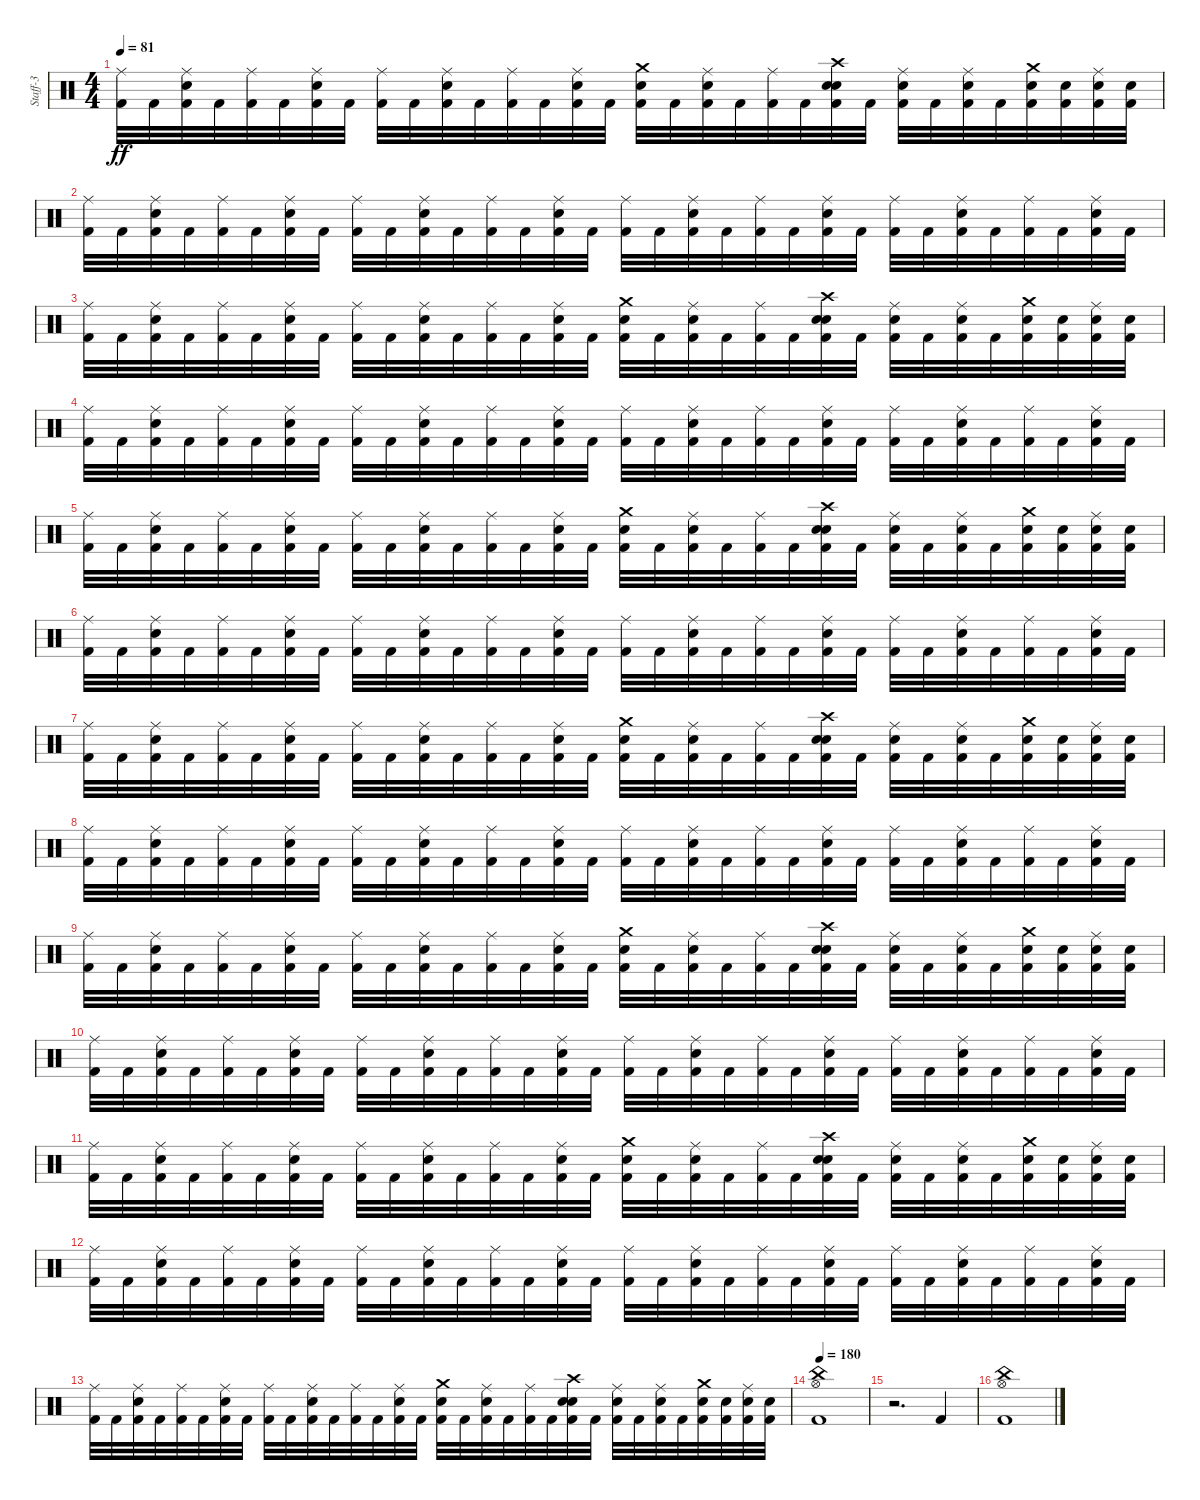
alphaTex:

\track ("Staff-3" "Staff-3") {instrument percussion}
\staff {score}
\articulation defaults
\ts (4 4)
\tempo 81
\clef neutral
\ks c
("Kick (hit) 2" "Ride (middle)").32{dy ff} "Kick (hit) 2".32 ("Kick (hit) 2" "Electric Snare (hit)" "Ride (middle)").32 "Kick (hit) 2".32 ("Kick (hit) 2" "Ride (middle)").32 "Kick (hit) 2".32 ("Kick (hit) 2" "Electric Snare (hit)" "Ride (middle)").32 "Kick (hit) 2".32 ("Kick (hit) 2" "Ride (middle)").32 "Kick (hit) 2".32 ("Kick (hit) 2" "Electric Snare (hit)" "Ride (middle)").32 "Kick (hit) 2".32 ("Kick (hit) 2" "Ride (middle)").32 "Kick (hit) 2".32 ("Kick (hit) 2" "Electric Snare (hit)" "Ride (middle)").32 "Kick (hit) 2".32 ("Kick (hit) 2" "Snare (hit) 2" "Crash medium (hit)").32 "Kick (hit) 2".32 ("Kick (hit) 2" "Snare (hit) 2" "Ride (middle)").32 "Kick (hit) 2".32 ("Kick (hit) 2" "Ride (middle)").32 "Kick (hit) 2".32 ("Kick (hit) 2" "Snare (hit) 2" "Electric Snare (hit)" "Crash high (hit)").32 "Kick (hit) 2".32 ("Kick (hit) 2" "Snare (hit) 2" "Ride (middle)").32 "Kick (hit) 2".32 ("Kick (hit) 2" "Snare (hit) 2" "Ride (middle)").32 "Kick (hit) 2".32 ("Kick (hit) 2" "Snare (hit) 2" "Crash medium (hit)").32 ("Kick (hit) 2" "Snare (hit) 2").32 ("Kick (hit) 2" "Snare (hit) 2" "Ride (middle)").32 ("Kick (hit) 2" "Snare (hit) 2").32 |
("Kick (hit) 2" "Ride (middle)").32 "Kick (hit) 2".32 ("Kick (hit) 2" "Electric Snare (hit)" "Ride (middle)").32 "Kick (hit) 2".32 ("Kick (hit) 2" "Ride (middle)").32 "Kick (hit) 2".32 ("Kick (hit) 2" "Electric Snare (hit)" "Ride (middle)").32 "Kick (hit) 2".32 ("Kick (hit) 2" "Ride (middle)").32 "Kick (hit) 2".32 ("Kick (hit) 2" "Electric Snare (hit)" "Ride (middle)").32 "Kick (hit) 2".32 ("Kick (hit) 2" "Ride (middle)").32 "Kick (hit) 2".32 ("Kick (hit) 2" "Electric Snare (hit)" "Ride (middle)").32 "Kick (hit) 2".32 ("Kick (hit) 2" "Ride (middle)").32 "Kick (hit) 2".32 ("Kick (hit) 2" "Electric Snare (hit)" "Ride (middle)").32 "Kick (hit) 2".32 ("Kick (hit) 2" "Ride (middle)").32 "Kick (hit) 2".32 ("Kick (hit) 2" "Electric Snare (hit)" "Ride (middle)").32 "Kick (hit) 2".32 ("Kick (hit) 2" "Ride (middle)").32 "Kick (hit) 2".32 ("Kick (hit) 2" "Electric Snare (hit)" "Ride (middle)").32 "Kick (hit) 2".32 ("Kick (hit) 2" "Ride (middle)").32 "Kick (hit) 2".32 ("Kick (hit) 2" "Electric Snare (hit)" "Ride (middle)").32 "Kick (hit) 2".32 |
("Kick (hit) 2" "Ride (middle)").32 "Kick (hit) 2".32 ("Kick (hit) 2" "Electric Snare (hit)" "Ride (middle)").32 "Kick (hit) 2".32 ("Kick (hit) 2" "Ride (middle)").32 "Kick (hit) 2".32 ("Kick (hit) 2" "Electric Snare (hit)" "Ride (middle)").32 "Kick (hit) 2".32 ("Kick (hit) 2" "Ride (middle)").32 "Kick (hit) 2".32 ("Kick (hit) 2" "Electric Snare (hit)" "Ride (middle)").32 "Kick (hit) 2".32 ("Kick (hit) 2" "Ride (middle)").32 "Kick (hit) 2".32 ("Kick (hit) 2" "Electric Snare (hit)" "Ride (middle)").32 "Kick (hit) 2".32 ("Kick (hit) 2" "Snare (hit) 2" "Crash medium (hit)").32 "Kick (hit) 2".32 ("Kick (hit) 2" "Snare (hit) 2" "Ride (middle)").32 "Kick (hit) 2".32 ("Kick (hit) 2" "Ride (middle)").32 "Kick (hit) 2".32 ("Kick (hit) 2" "Snare (hit) 2" "Electric Snare (hit)" "Crash high (hit)").32 "Kick (hit) 2".32 ("Kick (hit) 2" "Snare (hit) 2" "Ride (middle)").32 "Kick (hit) 2".32 ("Kick (hit) 2" "Snare (hit) 2" "Ride (middle)").32 "Kick (hit) 2".32 ("Kick (hit) 2" "Snare (hit) 2" "Crash medium (hit)").32 ("Kick (hit) 2" "Snare (hit) 2").32 ("Kick (hit) 2" "Snare (hit) 2" "Ride (middle)").32 ("Kick (hit) 2" "Snare (hit) 2").32 |
("Kick (hit) 2" "Ride (middle)").32 "Kick (hit) 2".32 ("Kick (hit) 2" "Electric Snare (hit)" "Ride (middle)").32 "Kick (hit) 2".32 ("Kick (hit) 2" "Ride (middle)").32 "Kick (hit) 2".32 ("Kick (hit) 2" "Electric Snare (hit)" "Ride (middle)").32 "Kick (hit) 2".32 ("Kick (hit) 2" "Ride (middle)").32 "Kick (hit) 2".32 ("Kick (hit) 2" "Electric Snare (hit)" "Ride (middle)").32 "Kick (hit) 2".32 ("Kick (hit) 2" "Ride (middle)").32 "Kick (hit) 2".32 ("Kick (hit) 2" "Electric Snare (hit)" "Ride (middle)").32 "Kick (hit) 2".32 ("Kick (hit) 2" "Ride (middle)").32 "Kick (hit) 2".32 ("Kick (hit) 2" "Electric Snare (hit)" "Ride (middle)").32 "Kick (hit) 2".32 ("Kick (hit) 2" "Ride (middle)").32 "Kick (hit) 2".32 ("Kick (hit) 2" "Electric Snare (hit)" "Ride (middle)").32 "Kick (hit) 2".32 ("Kick (hit) 2" "Ride (middle)").32 "Kick (hit) 2".32 ("Kick (hit) 2" "Electric Snare (hit)" "Ride (middle)").32 "Kick (hit) 2".32 ("Kick (hit) 2" "Ride (middle)").32 "Kick (hit) 2".32 ("Kick (hit) 2" "Electric Snare (hit)" "Ride (middle)").32 "Kick (hit) 2".32 |
("Kick (hit) 2" "Ride (middle)").32 "Kick (hit) 2".32 ("Kick (hit) 2" "Electric Snare (hit)" "Ride (middle)").32 "Kick (hit) 2".32 ("Kick (hit) 2" "Ride (middle)").32 "Kick (hit) 2".32 ("Kick (hit) 2" "Electric Snare (hit)" "Ride (middle)").32 "Kick (hit) 2".32 ("Kick (hit) 2" "Ride (middle)").32 "Kick (hit) 2".32 ("Kick (hit) 2" "Electric Snare (hit)" "Ride (middle)").32 "Kick (hit) 2".32 ("Kick (hit) 2" "Ride (middle)").32 "Kick (hit) 2".32 ("Kick (hit) 2" "Electric Snare (hit)" "Ride (middle)").32 "Kick (hit) 2".32 ("Kick (hit) 2" "Snare (hit) 2" "Crash medium (hit)").32 "Kick (hit) 2".32 ("Kick (hit) 2" "Snare (hit) 2" "Ride (middle)").32 "Kick (hit) 2".32 ("Kick (hit) 2" "Ride (middle)").32 "Kick (hit) 2".32 ("Kick (hit) 2" "Snare (hit) 2" "Electric Snare (hit)" "Crash high (hit)").32 "Kick (hit) 2".32 ("Kick (hit) 2" "Snare (hit) 2" "Ride (middle)").32 "Kick (hit) 2".32 ("Kick (hit) 2" "Snare (hit) 2" "Ride (middle)").32 "Kick (hit) 2".32 ("Kick (hit) 2" "Snare (hit) 2" "Crash medium (hit)").32 ("Kick (hit) 2" "Snare (hit) 2").32 ("Kick (hit) 2" "Snare (hit) 2" "Ride (middle)").32 ("Kick (hit) 2" "Snare (hit) 2").32 |
("Kick (hit) 2" "Ride (middle)").32 "Kick (hit) 2".32 ("Kick (hit) 2" "Electric Snare (hit)" "Ride (middle)").32 "Kick (hit) 2".32 ("Kick (hit) 2" "Ride (middle)").32 "Kick (hit) 2".32 ("Kick (hit) 2" "Electric Snare (hit)" "Ride (middle)").32 "Kick (hit) 2".32 ("Kick (hit) 2" "Ride (middle)").32 "Kick (hit) 2".32 ("Kick (hit) 2" "Electric Snare (hit)" "Ride (middle)").32 "Kick (hit) 2".32 ("Kick (hit) 2" "Ride (middle)").32 "Kick (hit) 2".32 ("Kick (hit) 2" "Electric Snare (hit)" "Ride (middle)").32 "Kick (hit) 2".32 ("Kick (hit) 2" "Ride (middle)").32 "Kick (hit) 2".32 ("Kick (hit) 2" "Electric Snare (hit)" "Ride (middle)").32 "Kick (hit) 2".32 ("Kick (hit) 2" "Ride (middle)").32 "Kick (hit) 2".32 ("Kick (hit) 2" "Electric Snare (hit)" "Ride (middle)").32 "Kick (hit) 2".32 ("Kick (hit) 2" "Ride (middle)").32 "Kick (hit) 2".32 ("Kick (hit) 2" "Electric Snare (hit)" "Ride (middle)").32 "Kick (hit) 2".32 ("Kick (hit) 2" "Ride (middle)").32 "Kick (hit) 2".32 ("Kick (hit) 2" "Electric Snare (hit)" "Ride (middle)").32 "Kick (hit) 2".32 |
("Kick (hit) 2" "Ride (middle)").32 "Kick (hit) 2".32 ("Kick (hit) 2" "Electric Snare (hit)" "Ride (middle)").32 "Kick (hit) 2".32 ("Kick (hit) 2" "Ride (middle)").32 "Kick (hit) 2".32 ("Kick (hit) 2" "Electric Snare (hit)" "Ride (middle)").32 "Kick (hit) 2".32 ("Kick (hit) 2" "Ride (middle)").32 "Kick (hit) 2".32 ("Kick (hit) 2" "Electric Snare (hit)" "Ride (middle)").32 "Kick (hit) 2".32 ("Kick (hit) 2" "Ride (middle)").32 "Kick (hit) 2".32 ("Kick (hit) 2" "Electric Snare (hit)" "Ride (middle)").32 "Kick (hit) 2".32 ("Kick (hit) 2" "Snare (hit) 2" "Crash medium (hit)").32 "Kick (hit) 2".32 ("Kick (hit) 2" "Snare (hit) 2" "Ride (middle)").32 "Kick (hit) 2".32 ("Kick (hit) 2" "Ride (middle)").32 "Kick (hit) 2".32 ("Kick (hit) 2" "Snare (hit) 2" "Electric Snare (hit)" "Crash high (hit)").32 "Kick (hit) 2".32 ("Kick (hit) 2" "Snare (hit) 2" "Ride (middle)").32 "Kick (hit) 2".32 ("Kick (hit) 2" "Snare (hit) 2" "Ride (middle)").32 "Kick (hit) 2".32 ("Kick (hit) 2" "Snare (hit) 2" "Crash medium (hit)").32 ("Kick (hit) 2" "Snare (hit) 2").32 ("Kick (hit) 2" "Snare (hit) 2" "Ride (middle)").32 ("Kick (hit) 2" "Snare (hit) 2").32 |
("Kick (hit) 2" "Ride (middle)").32 "Kick (hit) 2".32 ("Kick (hit) 2" "Electric Snare (hit)" "Ride (middle)").32 "Kick (hit) 2".32 ("Kick (hit) 2" "Ride (middle)").32 "Kick (hit) 2".32 ("Kick (hit) 2" "Electric Snare (hit)" "Ride (middle)").32 "Kick (hit) 2".32 ("Kick (hit) 2" "Ride (middle)").32 "Kick (hit) 2".32 ("Kick (hit) 2" "Electric Snare (hit)" "Ride (middle)").32 "Kick (hit) 2".32 ("Kick (hit) 2" "Ride (middle)").32 "Kick (hit) 2".32 ("Kick (hit) 2" "Electric Snare (hit)" "Ride (middle)").32 "Kick (hit) 2".32 ("Kick (hit) 2" "Ride (middle)").32 "Kick (hit) 2".32 ("Kick (hit) 2" "Electric Snare (hit)" "Ride (middle)").32 "Kick (hit) 2".32 ("Kick (hit) 2" "Ride (middle)").32 "Kick (hit) 2".32 ("Kick (hit) 2" "Electric Snare (hit)" "Ride (middle)").32 "Kick (hit) 2".32 ("Kick (hit) 2" "Ride (middle)").32 "Kick (hit) 2".32 ("Kick (hit) 2" "Electric Snare (hit)" "Ride (middle)").32 "Kick (hit) 2".32 ("Kick (hit) 2" "Ride (middle)").32 "Kick (hit) 2".32 ("Kick (hit) 2" "Electric Snare (hit)" "Ride (middle)").32 "Kick (hit) 2".32 |
("Kick (hit) 2" "Ride (middle)").32 "Kick (hit) 2".32 ("Kick (hit) 2" "Electric Snare (hit)" "Ride (middle)").32 "Kick (hit) 2".32 ("Kick (hit) 2" "Ride (middle)").32 "Kick (hit) 2".32 ("Kick (hit) 2" "Electric Snare (hit)" "Ride (middle)").32 "Kick (hit) 2".32 ("Kick (hit) 2" "Ride (middle)").32 "Kick (hit) 2".32 ("Kick (hit) 2" "Electric Snare (hit)" "Ride (middle)").32 "Kick (hit) 2".32 ("Kick (hit) 2" "Ride (middle)").32 "Kick (hit) 2".32 ("Kick (hit) 2" "Electric Snare (hit)" "Ride (middle)").32 "Kick (hit) 2".32 ("Kick (hit) 2" "Snare (hit) 2" "Crash medium (hit)").32 "Kick (hit) 2".32 ("Kick (hit) 2" "Snare (hit) 2" "Ride (middle)").32 "Kick (hit) 2".32 ("Kick (hit) 2" "Ride (middle)").32 "Kick (hit) 2".32 ("Kick (hit) 2" "Snare (hit) 2" "Electric Snare (hit)" "Crash high (hit)").32 "Kick (hit) 2".32 ("Kick (hit) 2" "Snare (hit) 2" "Ride (middle)").32 "Kick (hit) 2".32 ("Kick (hit) 2" "Snare (hit) 2" "Ride (middle)").32 "Kick (hit) 2".32 ("Kick (hit) 2" "Snare (hit) 2" "Crash medium (hit)").32 ("Kick (hit) 2" "Snare (hit) 2").32 ("Kick (hit) 2" "Snare (hit) 2" "Ride (middle)").32 ("Kick (hit) 2" "Snare (hit) 2").32 |
("Kick (hit) 2" "Ride (middle)").32 "Kick (hit) 2".32 ("Kick (hit) 2" "Electric Snare (hit)" "Ride (middle)").32 "Kick (hit) 2".32 ("Kick (hit) 2" "Ride (middle)").32 "Kick (hit) 2".32 ("Kick (hit) 2" "Electric Snare (hit)" "Ride (middle)").32 "Kick (hit) 2".32 ("Kick (hit) 2" "Ride (middle)").32 "Kick (hit) 2".32 ("Kick (hit) 2" "Electric Snare (hit)" "Ride (middle)").32 "Kick (hit) 2".32 ("Kick (hit) 2" "Ride (middle)").32 "Kick (hit) 2".32 ("Kick (hit) 2" "Electric Snare (hit)" "Ride (middle)").32 "Kick (hit) 2".32 ("Kick (hit) 2" "Ride (middle)").32 "Kick (hit) 2".32 ("Kick (hit) 2" "Electric Snare (hit)" "Ride (middle)").32 "Kick (hit) 2".32 ("Kick (hit) 2" "Ride (middle)").32 "Kick (hit) 2".32 ("Kick (hit) 2" "Electric Snare (hit)" "Ride (middle)").32 "Kick (hit) 2".32 ("Kick (hit) 2" "Ride (middle)").32 "Kick (hit) 2".32 ("Kick (hit) 2" "Electric Snare (hit)" "Ride (middle)").32 "Kick (hit) 2".32 ("Kick (hit) 2" "Ride (middle)").32 "Kick (hit) 2".32 ("Kick (hit) 2" "Electric Snare (hit)" "Ride (middle)").32 "Kick (hit) 2".32 |
("Kick (hit) 2" "Ride (middle)").32 "Kick (hit) 2".32 ("Kick (hit) 2" "Electric Snare (hit)" "Ride (middle)").32 "Kick (hit) 2".32 ("Kick (hit) 2" "Ride (middle)").32 "Kick (hit) 2".32 ("Kick (hit) 2" "Electric Snare (hit)" "Ride (middle)").32 "Kick (hit) 2".32 ("Kick (hit) 2" "Ride (middle)").32 "Kick (hit) 2".32 ("Kick (hit) 2" "Electric Snare (hit)" "Ride (middle)").32 "Kick (hit) 2".32 ("Kick (hit) 2" "Ride (middle)").32 "Kick (hit) 2".32 ("Kick (hit) 2" "Electric Snare (hit)" "Ride (middle)").32 "Kick (hit) 2".32 ("Kick (hit) 2" "Snare (hit) 2" "Crash medium (hit)").32 "Kick (hit) 2".32 ("Kick (hit) 2" "Snare (hit) 2" "Ride (middle)").32 "Kick (hit) 2".32 ("Kick (hit) 2" "Ride (middle)").32 "Kick (hit) 2".32 ("Kick (hit) 2" "Snare (hit) 2" "Electric Snare (hit)" "Crash high (hit)").32 "Kick (hit) 2".32 ("Kick (hit) 2" "Snare (hit) 2" "Ride (middle)").32 "Kick (hit) 2".32 ("Kick (hit) 2" "Snare (hit) 2" "Ride (middle)").32 "Kick (hit) 2".32 ("Kick (hit) 2" "Snare (hit) 2" "Crash medium (hit)").32 ("Kick (hit) 2" "Snare (hit) 2").32 ("Kick (hit) 2" "Snare (hit) 2" "Ride (middle)").32 ("Kick (hit) 2" "Snare (hit) 2").32 |
("Kick (hit) 2" "Ride (middle)").32 "Kick (hit) 2".32 ("Kick (hit) 2" "Electric Snare (hit)" "Ride (middle)").32 "Kick (hit) 2".32 ("Kick (hit) 2" "Ride (middle)").32 "Kick (hit) 2".32 ("Kick (hit) 2" "Electric Snare (hit)" "Ride (middle)").32 "Kick (hit) 2".32 ("Kick (hit) 2" "Ride (middle)").32 "Kick (hit) 2".32 ("Kick (hit) 2" "Electric Snare (hit)" "Ride (middle)").32 "Kick (hit) 2".32 ("Kick (hit) 2" "Ride (middle)").32 "Kick (hit) 2".32 ("Kick (hit) 2" "Electric Snare (hit)" "Ride (middle)").32 "Kick (hit) 2".32 ("Kick (hit) 2" "Ride (middle)").32 "Kick (hit) 2".32 ("Kick (hit) 2" "Electric Snare (hit)" "Ride (middle)").32 "Kick (hit) 2".32 ("Kick (hit) 2" "Ride (middle)").32 "Kick (hit) 2".32 ("Kick (hit) 2" "Electric Snare (hit)" "Ride (middle)").32 "Kick (hit) 2".32 ("Kick (hit) 2" "Ride (middle)").32 "Kick (hit) 2".32 ("Kick (hit) 2" "Electric Snare (hit)" "Ride (middle)").32 "Kick (hit) 2".32 ("Kick (hit) 2" "Ride (middle)").32 "Kick (hit) 2".32 ("Kick (hit) 2" "Electric Snare (hit)" "Ride (middle)").32 "Kick (hit) 2".32 |
("Kick (hit) 2" "Ride (middle)").32 "Kick (hit) 2".32 ("Kick (hit) 2" "Electric Snare (hit)" "Ride (middle)").32 "Kick (hit) 2".32 ("Kick (hit) 2" "Ride (middle)").32 "Kick (hit) 2".32 ("Kick (hit) 2" "Electric Snare (hit)" "Ride (middle)").32 "Kick (hit) 2".32 ("Kick (hit) 2" "Ride (middle)").32 "Kick (hit) 2".32 ("Kick (hit) 2" "Electric Snare (hit)" "Ride (middle)").32 "Kick (hit) 2".32 ("Kick (hit) 2" "Ride (middle)").32 "Kick (hit) 2".32 ("Kick (hit) 2" "Electric Snare (hit)" "Ride (middle)").32 "Kick (hit) 2".32 ("Kick (hit) 2" "Snare (hit) 2" "Crash medium (hit)").32 "Kick (hit) 2".32 ("Kick (hit) 2" "Snare (hit) 2" "Ride (middle)").32 "Kick (hit) 2".32 ("Kick (hit) 2" "Ride (middle)").32 "Kick (hit) 2".32 ("Kick (hit) 2" "Snare (hit) 2" "Electric Snare (hit)" "Crash high (hit)").32 "Kick (hit) 2".32 ("Kick (hit) 2" "Snare (hit) 2" "Ride (middle)").32 "Kick (hit) 2".32 ("Kick (hit) 2" "Snare (hit) 2" "Ride (middle)").32 "Kick (hit) 2".32 ("Kick (hit) 2" "Snare (hit) 2" "Crash medium (hit)").32 ("Kick (hit) 2" "Snare (hit) 2").32 ("Kick (hit) 2" "Snare (hit) 2" "Ride (middle)").32 ("Kick (hit) 2" "Snare (hit) 2").32 |
\tempo 180
("Kick (hit) 2" "Hi-Hat (open)" "China (hit)").1 |
r.2{d} "Kick (hit) 2".4 |
("Kick (hit) 2" "Hi-Hat (open)" "China (hit)").1
